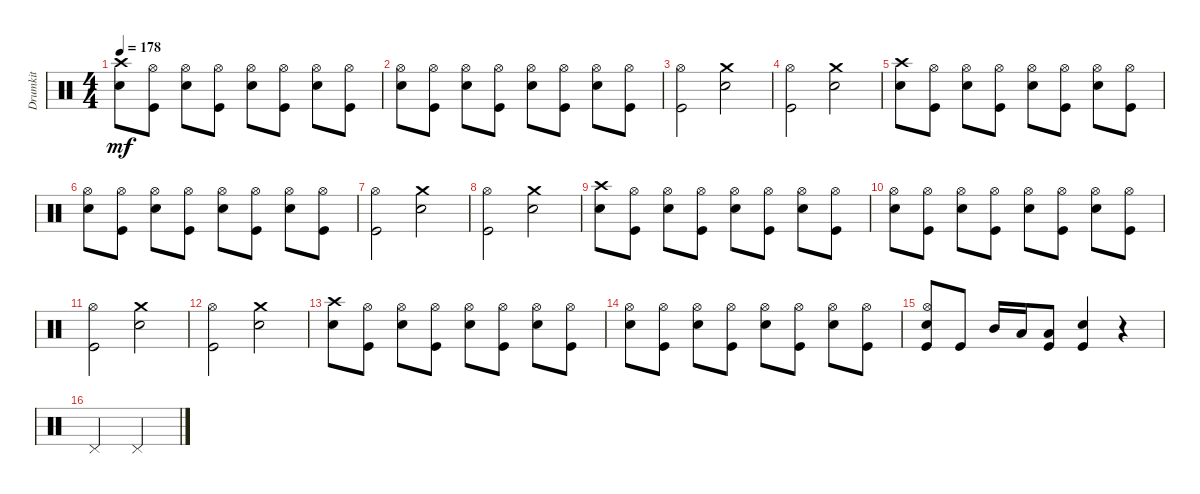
\track ("Drumkit" "Drumkit") {instrument percussion}
\staff {score}
\articulation defaults
\ts (4 4)
\tempo 178
\clef neutral
\ks c
("Crash high (hit)" "Snare (hit) 2").8{dy mf} ("Hi-Hat (open)" "Kick (hit)").8 ("Hi-Hat (open)" "Snare (hit) 2").8 ("Hi-Hat (open)" "Kick (hit)").8 ("Hi-Hat (open)" "Snare (hit) 2").8 ("Hi-Hat (open)" "Kick (hit)").8 ("Hi-Hat (open)" "Snare (hit) 2").8 ("Hi-Hat (open)" "Kick (hit)").8 |
("Hi-Hat (open)" "Snare (hit) 2").8 ("Hi-Hat (open)" "Kick (hit)").8 ("Hi-Hat (open)" "Snare (hit) 2").8 ("Hi-Hat (open)" "Kick (hit)").8 ("Hi-Hat (open)" "Snare (hit) 2").8 ("Hi-Hat (open)" "Kick (hit)").8 ("Hi-Hat (open)" "Snare (hit) 2").8 ("Hi-Hat (open)" "Kick (hit)").8 |
("Hi-Hat (open)" "Kick (hit)").2 ("Snare (hit) 2" "Crash medium (hit)").2 |
("Hi-Hat (open)" "Kick (hit)").2 ("Snare (hit) 2" "Crash medium (hit)").2 |
("Crash high (hit)" "Snare (hit) 2").8 ("Hi-Hat (open)" "Kick (hit)").8 ("Hi-Hat (open)" "Snare (hit) 2").8 ("Hi-Hat (open)" "Kick (hit)").8 ("Hi-Hat (open)" "Snare (hit) 2").8 ("Hi-Hat (open)" "Kick (hit)").8 ("Hi-Hat (open)" "Snare (hit) 2").8 ("Hi-Hat (open)" "Kick (hit)").8 |
("Hi-Hat (open)" "Snare (hit) 2").8 ("Hi-Hat (open)" "Kick (hit)").8 ("Hi-Hat (open)" "Snare (hit) 2").8 ("Hi-Hat (open)" "Kick (hit)").8 ("Hi-Hat (open)" "Snare (hit) 2").8 ("Hi-Hat (open)" "Kick (hit)").8 ("Hi-Hat (open)" "Snare (hit) 2").8 ("Hi-Hat (open)" "Kick (hit)").8 |
("Hi-Hat (open)" "Kick (hit)").2 ("Snare (hit) 2" "Crash medium (hit)").2 |
("Hi-Hat (open)" "Kick (hit)").2 ("Snare (hit) 2" "Crash medium (hit)").2 |
("Crash high (hit)" "Snare (hit) 2").8 ("Hi-Hat (open)" "Kick (hit)").8 ("Hi-Hat (open)" "Snare (hit) 2").8 ("Hi-Hat (open)" "Kick (hit)").8 ("Hi-Hat (open)" "Snare (hit) 2").8 ("Hi-Hat (open)" "Kick (hit)").8 ("Hi-Hat (open)" "Snare (hit) 2").8 ("Hi-Hat (open)" "Kick (hit)").8 |
("Hi-Hat (open)" "Snare (hit) 2").8 ("Hi-Hat (open)" "Kick (hit)").8 ("Hi-Hat (open)" "Snare (hit) 2").8 ("Hi-Hat (open)" "Kick (hit)").8 ("Hi-Hat (open)" "Snare (hit) 2").8 ("Hi-Hat (open)" "Kick (hit)").8 ("Hi-Hat (open)" "Snare (hit) 2").8 ("Hi-Hat (open)" "Kick (hit)").8 |
("Hi-Hat (open)" "Kick (hit)").2 ("Snare (hit) 2" "Crash medium (hit)").2 |
("Hi-Hat (open)" "Kick (hit)").2 ("Snare (hit) 2" "Crash medium (hit)").2 |
("Crash high (hit)" "Snare (hit) 2").8 ("Hi-Hat (open)" "Kick (hit)").8 ("Hi-Hat (open)" "Snare (hit) 2").8 ("Hi-Hat (open)" "Kick (hit)").8 ("Hi-Hat (open)" "Snare (hit) 2").8 ("Hi-Hat (open)" "Kick (hit)").8 ("Hi-Hat (open)" "Snare (hit) 2").8 ("Hi-Hat (open)" "Kick (hit)").8 |
("Hi-Hat (open)" "Snare (hit) 2").8 ("Hi-Hat (open)" "Kick (hit)").8 ("Hi-Hat (open)" "Snare (hit) 2").8 ("Hi-Hat (open)" "Kick (hit)").8 ("Hi-Hat (open)" "Snare (hit) 2").8 ("Hi-Hat (open)" "Kick (hit)").8 ("Hi-Hat (open)" "Snare (hit) 2").8 ("Hi-Hat (open)" "Kick (hit)").8 |
("Hi-Hat (open)" "Kick (hit)" "Snare (hit) 2").8 "Kick (hit)".8 "Mid Tom (hit)".16 "Low Tom (hit)".16 ("Kick (hit)" "Low Floor Tom (hit)").8 ("Snare (hit) 2" "Kick (hit)").4 r.4 |
"Pedal Hi-Hat (hit)".2 "Pedal Hi-Hat (hit)".2
